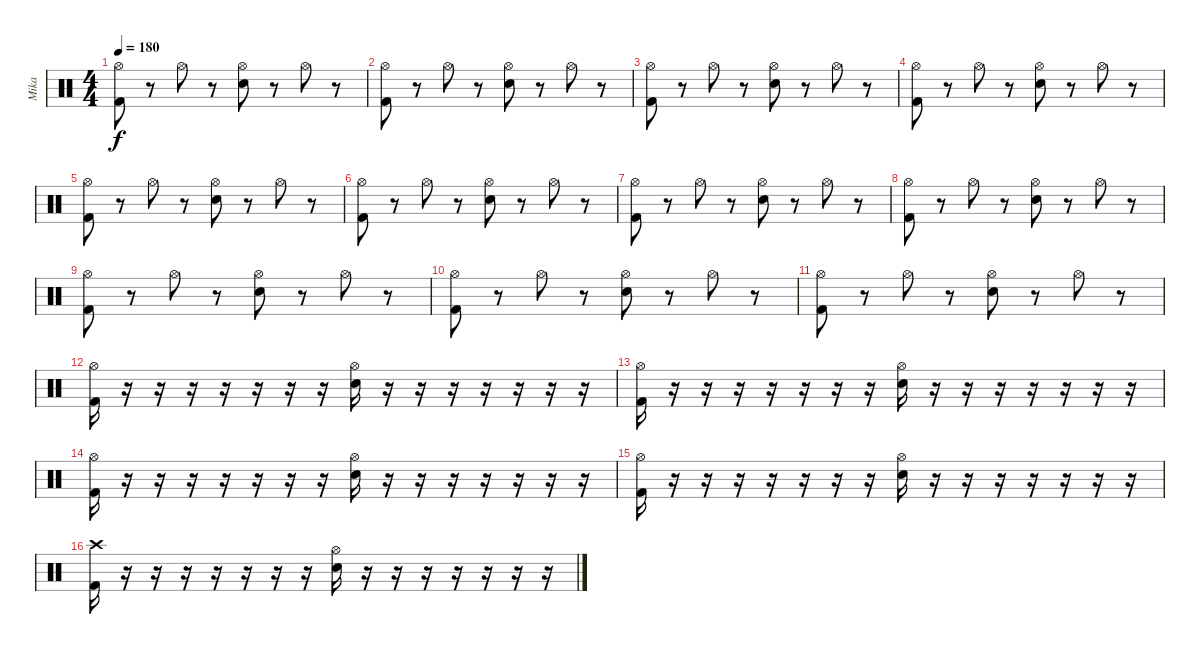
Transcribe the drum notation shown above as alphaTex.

\track ("Mika" "Mika") {instrument percussion}
\staff {score}
\articulation defaults
\ts (4 4)
\tempo 180
\clef neutral
\ks c
("Hi-Hat (open)" "Kick (hit) 2").8{dy f} r.8 "Hi-Hat (open)".8 r.8 ("Hi-Hat (open)" "Electric Snare (hit)").8 r.8 "Hi-Hat (open)".8 r.8 |
("Hi-Hat (open)" "Kick (hit) 2").8 r.8 "Hi-Hat (open)".8 r.8 ("Hi-Hat (open)" "Electric Snare (hit)").8 r.8 "Hi-Hat (open)".8 r.8 |
("Hi-Hat (open)" "Kick (hit) 2").8 r.8 "Hi-Hat (open)".8 r.8 ("Hi-Hat (open)" "Electric Snare (hit)").8 r.8 "Hi-Hat (open)".8 r.8 |
("Hi-Hat (open)" "Kick (hit) 2").8 r.8 "Hi-Hat (open)".8 r.8 ("Hi-Hat (open)" "Electric Snare (hit)").8 r.8 "Hi-Hat (open)".8 r.8 |
("Hi-Hat (open)" "Kick (hit) 2").8 r.8 "Hi-Hat (open)".8 r.8 ("Hi-Hat (open)" "Electric Snare (hit)").8 r.8 "Hi-Hat (open)".8 r.8 |
("Hi-Hat (open)" "Kick (hit) 2").8 r.8 "Hi-Hat (open)".8 r.8 ("Hi-Hat (open)" "Electric Snare (hit)").8 r.8 "Hi-Hat (open)".8 r.8 |
("Hi-Hat (open)" "Kick (hit) 2").8 r.8 "Hi-Hat (open)".8 r.8 ("Hi-Hat (open)" "Electric Snare (hit)").8 r.8 "Hi-Hat (open)".8 r.8 |
("Hi-Hat (open)" "Kick (hit) 2").8 r.8 "Hi-Hat (open)".8 r.8 ("Hi-Hat (open)" "Electric Snare (hit)").8 r.8 "Hi-Hat (open)".8 r.8 |
("Hi-Hat (open)" "Kick (hit) 2").8 r.8 "Hi-Hat (open)".8 r.8 ("Hi-Hat (open)" "Electric Snare (hit)").8 r.8 "Hi-Hat (open)".8 r.8 |
("Hi-Hat (open)" "Kick (hit) 2").8 r.8 "Hi-Hat (open)".8 r.8 ("Hi-Hat (open)" "Electric Snare (hit)").8 r.8 "Hi-Hat (open)".8 r.8 |
("Hi-Hat (open)" "Kick (hit) 2").8 r.8 "Hi-Hat (open)".8 r.8 ("Hi-Hat (open)" "Electric Snare (hit)").8 r.8 "Hi-Hat (open)".8 r.8 |
("Hi-Hat (open)" "Kick (hit) 2").16 r.16 r.16 r.16 r.16 r.16 r.16 r.16 ("Hi-Hat (open)" "Electric Snare (hit)").16 r.16 r.16 r.16 r.16 r.16 r.16 r.16 |
("Hi-Hat (open)" "Kick (hit) 2").16 r.16 r.16 r.16 r.16 r.16 r.16 r.16 ("Hi-Hat (open)" "Electric Snare (hit)").16 r.16 r.16 r.16 r.16 r.16 r.16 r.16 |
("Hi-Hat (open)" "Kick (hit) 2").16 r.16 r.16 r.16 r.16 r.16 r.16 r.16 ("Hi-Hat (open)" "Electric Snare (hit)").16 r.16 r.16 r.16 r.16 r.16 r.16 r.16 |
("Hi-Hat (open)" "Kick (hit) 2").16 r.16 r.16 r.16 r.16 r.16 r.16 r.16 ("Hi-Hat (open)" "Electric Snare (hit)").16 r.16 r.16 r.16 r.16 r.16 r.16 r.16 |
("Crash high (hit)" "Kick (hit) 2").16 r.16 r.16 r.16 r.16 r.16 r.16 r.16 ("Hi-Hat (open)" "Electric Snare (hit)").16 r.16 r.16 r.16 r.16 r.16 r.16 r.16
